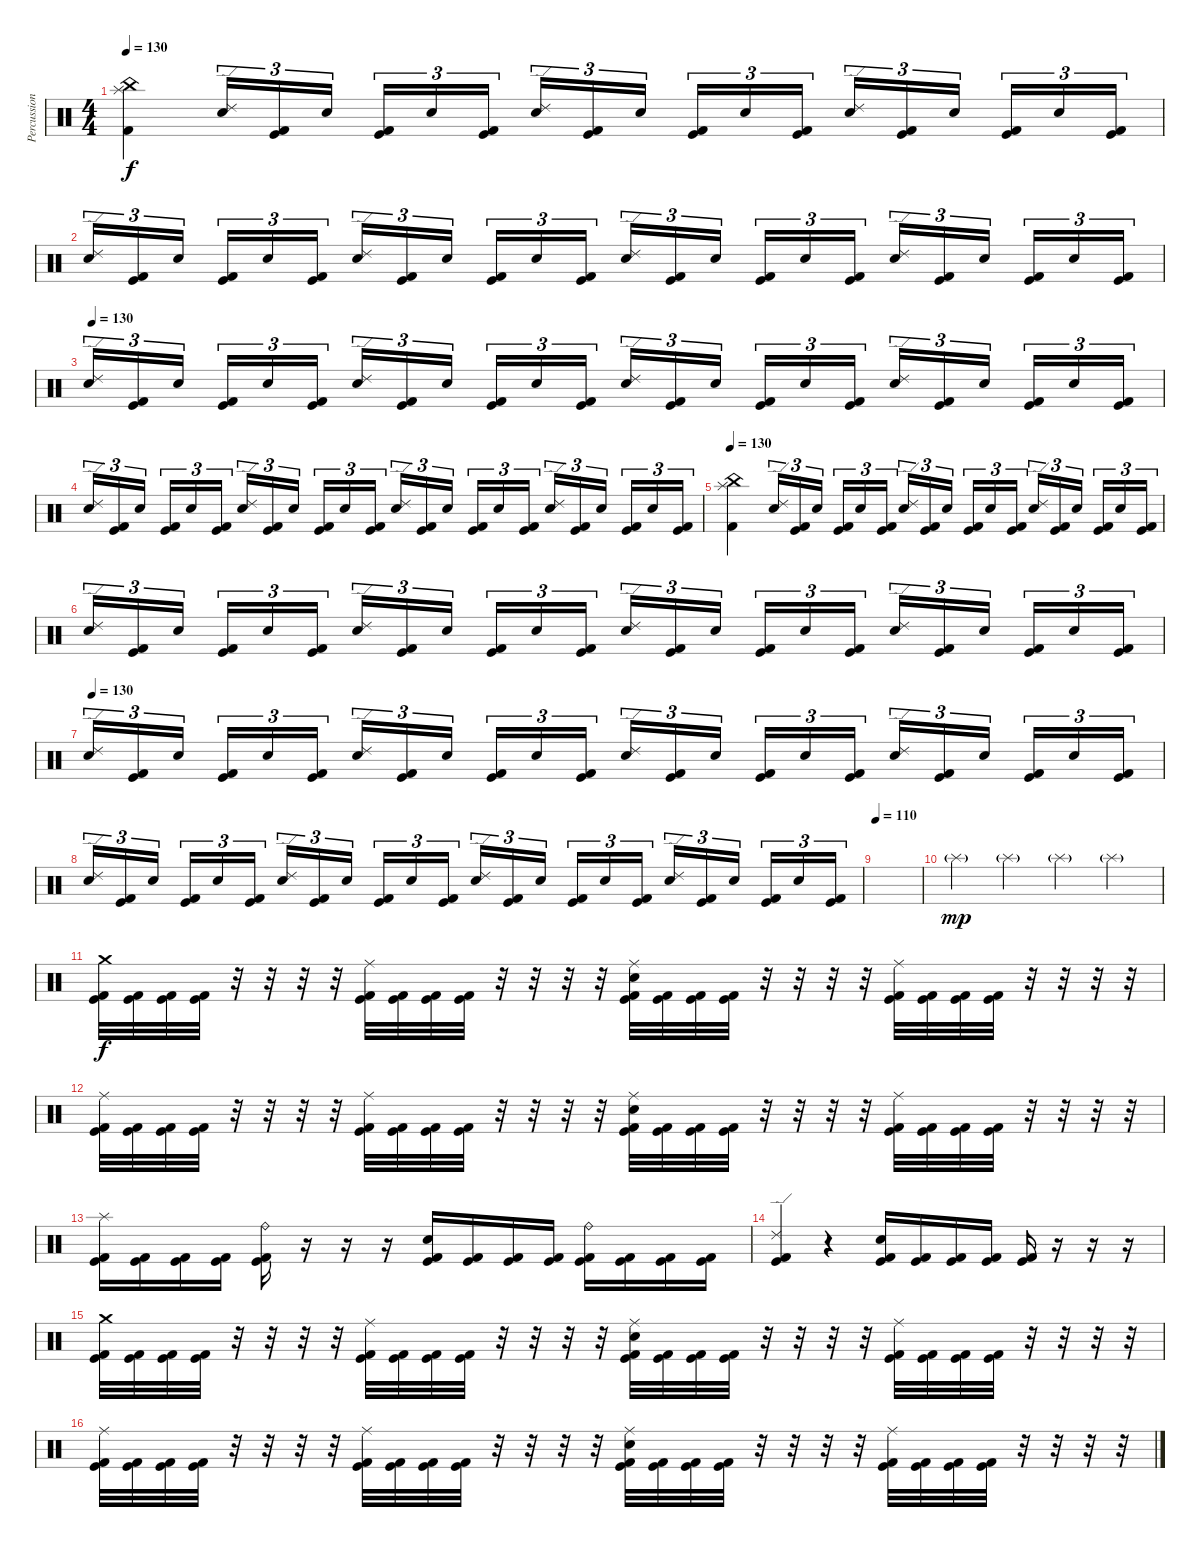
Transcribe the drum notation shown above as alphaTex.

\track ("Percussion" "Percussion") {instrument percussion}
\staff {score}
\articulation defaults
\ts (4 4)
\tempo 130
\clef neutral
\ks c
("China (hit)" "Splash (hit)" "Kick (hit) 2").4{dy f} ("Ride (edge) 2" "Electric Snare (hit)").16{tu (3 2)} ("Kick (hit)" "Kick (hit) 2").16{tu (3 2)} "Electric Snare (hit)".16{tu (3 2) beam splitsecondary} ("Kick (hit)" "Kick (hit) 2").16{tu (3 2)} "Electric Snare (hit)".16{tu (3 2)} ("Kick (hit)" "Kick (hit) 2").16{tu (3 2)} ("Ride (edge) 2" "Electric Snare (hit)").16{tu (3 2)} ("Kick (hit)" "Kick (hit) 2").16{tu (3 2)} "Electric Snare (hit)".16{tu (3 2) beam splitsecondary} ("Kick (hit)" "Kick (hit) 2").16{tu (3 2)} "Electric Snare (hit)".16{tu (3 2)} ("Kick (hit)" "Kick (hit) 2").16{tu (3 2)} ("Ride (edge) 2" "Electric Snare (hit)").16{tu (3 2)} ("Kick (hit)" "Kick (hit) 2").16{tu (3 2)} "Electric Snare (hit)".16{tu (3 2) beam splitsecondary} ("Kick (hit)" "Kick (hit) 2").16{tu (3 2)} "Electric Snare (hit)".16{tu (3 2)} ("Kick (hit)" "Kick (hit) 2").16{tu (3 2)} |
("Ride (edge) 2" "Electric Snare (hit)").16{tu (3 2)} ("Kick (hit)" "Kick (hit) 2").16{tu (3 2)} "Electric Snare (hit)".16{tu (3 2) beam splitsecondary} ("Kick (hit)" "Kick (hit) 2").16{tu (3 2)} "Electric Snare (hit)".16{tu (3 2)} ("Kick (hit)" "Kick (hit) 2").16{tu (3 2)} ("Ride (edge) 2" "Electric Snare (hit)").16{tu (3 2)} ("Kick (hit)" "Kick (hit) 2").16{tu (3 2)} "Electric Snare (hit)".16{tu (3 2) beam splitsecondary} ("Kick (hit)" "Kick (hit) 2").16{tu (3 2)} "Electric Snare (hit)".16{tu (3 2)} ("Kick (hit)" "Kick (hit) 2").16{tu (3 2)} ("Ride (edge) 2" "Electric Snare (hit)").16{tu (3 2)} ("Kick (hit)" "Kick (hit) 2").16{tu (3 2)} "Electric Snare (hit)".16{tu (3 2) beam splitsecondary} ("Kick (hit)" "Kick (hit) 2").16{tu (3 2)} "Electric Snare (hit)".16{tu (3 2)} ("Kick (hit)" "Kick (hit) 2").16{tu (3 2)} ("Ride (edge) 2" "Electric Snare (hit)").16{tu (3 2)} ("Kick (hit)" "Kick (hit) 2").16{tu (3 2)} "Electric Snare (hit)".16{tu (3 2) beam splitsecondary} ("Kick (hit)" "Kick (hit) 2").16{tu (3 2)} "Electric Snare (hit)".16{tu (3 2)} ("Kick (hit)" "Kick (hit) 2").16{tu (3 2)} |
\tempo 130
("Ride (edge) 2" "Electric Snare (hit)").16{tu (3 2)} ("Kick (hit)" "Kick (hit) 2").16{tu (3 2)} "Electric Snare (hit)".16{tu (3 2) beam splitsecondary} ("Kick (hit)" "Kick (hit) 2").16{tu (3 2)} "Electric Snare (hit)".16{tu (3 2)} ("Kick (hit)" "Kick (hit) 2").16{tu (3 2)} ("Ride (edge) 2" "Electric Snare (hit)").16{tu (3 2)} ("Kick (hit)" "Kick (hit) 2").16{tu (3 2)} "Electric Snare (hit)".16{tu (3 2) beam splitsecondary} ("Kick (hit)" "Kick (hit) 2").16{tu (3 2)} "Electric Snare (hit)".16{tu (3 2)} ("Kick (hit)" "Kick (hit) 2").16{tu (3 2)} ("Ride (edge) 2" "Electric Snare (hit)").16{tu (3 2)} ("Kick (hit)" "Kick (hit) 2").16{tu (3 2)} "Electric Snare (hit)".16{tu (3 2) beam splitsecondary} ("Kick (hit)" "Kick (hit) 2").16{tu (3 2)} "Electric Snare (hit)".16{tu (3 2)} ("Kick (hit)" "Kick (hit) 2").16{tu (3 2)} ("Ride (edge) 2" "Electric Snare (hit)").16{tu (3 2)} ("Kick (hit)" "Kick (hit) 2").16{tu (3 2)} "Electric Snare (hit)".16{tu (3 2) beam splitsecondary} ("Kick (hit)" "Kick (hit) 2").16{tu (3 2)} "Electric Snare (hit)".16{tu (3 2)} ("Kick (hit)" "Kick (hit) 2").16{tu (3 2)} |
("Ride (edge) 2" "Electric Snare (hit)").16{tu (3 2)} ("Kick (hit)" "Kick (hit) 2").16{tu (3 2)} "Electric Snare (hit)".16{tu (3 2) beam splitsecondary} ("Kick (hit)" "Kick (hit) 2").16{tu (3 2)} "Electric Snare (hit)".16{tu (3 2)} ("Kick (hit)" "Kick (hit) 2").16{tu (3 2)} ("Ride (edge) 2" "Electric Snare (hit)").16{tu (3 2)} ("Kick (hit)" "Kick (hit) 2").16{tu (3 2)} "Electric Snare (hit)".16{tu (3 2) beam splitsecondary} ("Kick (hit)" "Kick (hit) 2").16{tu (3 2)} "Electric Snare (hit)".16{tu (3 2)} ("Kick (hit)" "Kick (hit) 2").16{tu (3 2)} ("Ride (edge) 2" "Electric Snare (hit)").16{tu (3 2)} ("Kick (hit)" "Kick (hit) 2").16{tu (3 2)} "Electric Snare (hit)".16{tu (3 2) beam splitsecondary} ("Kick (hit)" "Kick (hit) 2").16{tu (3 2)} "Electric Snare (hit)".16{tu (3 2)} ("Kick (hit)" "Kick (hit) 2").16{tu (3 2)} ("Ride (edge) 2" "Electric Snare (hit)").16{tu (3 2)} ("Kick (hit)" "Kick (hit) 2").16{tu (3 2)} "Electric Snare (hit)".16{tu (3 2) beam splitsecondary} ("Kick (hit)" "Kick (hit) 2").16{tu (3 2)} "Electric Snare (hit)".16{tu (3 2)} ("Kick (hit)" "Kick (hit) 2").16{tu (3 2)} |
\tempo 130
("China (hit)" "Splash (hit)" "Kick (hit) 2").4 ("Ride (edge) 2" "Electric Snare (hit)").16{tu (3 2)} ("Kick (hit)" "Kick (hit) 2").16{tu (3 2)} "Electric Snare (hit)".16{tu (3 2) beam splitsecondary} ("Kick (hit)" "Kick (hit) 2").16{tu (3 2)} "Electric Snare (hit)".16{tu (3 2)} ("Kick (hit)" "Kick (hit) 2").16{tu (3 2)} ("Ride (edge) 2" "Electric Snare (hit)").16{tu (3 2)} ("Kick (hit)" "Kick (hit) 2").16{tu (3 2)} "Electric Snare (hit)".16{tu (3 2) beam splitsecondary} ("Kick (hit)" "Kick (hit) 2").16{tu (3 2)} "Electric Snare (hit)".16{tu (3 2)} ("Kick (hit)" "Kick (hit) 2").16{tu (3 2)} ("Ride (edge) 2" "Electric Snare (hit)").16{tu (3 2)} ("Kick (hit)" "Kick (hit) 2").16{tu (3 2)} "Electric Snare (hit)".16{tu (3 2) beam splitsecondary} ("Kick (hit)" "Kick (hit) 2").16{tu (3 2)} "Electric Snare (hit)".16{tu (3 2)} ("Kick (hit)" "Kick (hit) 2").16{tu (3 2)} |
("Ride (edge) 2" "Electric Snare (hit)").16{tu (3 2)} ("Kick (hit)" "Kick (hit) 2").16{tu (3 2)} "Electric Snare (hit)".16{tu (3 2) beam splitsecondary} ("Kick (hit)" "Kick (hit) 2").16{tu (3 2)} "Electric Snare (hit)".16{tu (3 2)} ("Kick (hit)" "Kick (hit) 2").16{tu (3 2)} ("Ride (edge) 2" "Electric Snare (hit)").16{tu (3 2)} ("Kick (hit)" "Kick (hit) 2").16{tu (3 2)} "Electric Snare (hit)".16{tu (3 2) beam splitsecondary} ("Kick (hit)" "Kick (hit) 2").16{tu (3 2)} "Electric Snare (hit)".16{tu (3 2)} ("Kick (hit)" "Kick (hit) 2").16{tu (3 2)} ("Ride (edge) 2" "Electric Snare (hit)").16{tu (3 2)} ("Kick (hit)" "Kick (hit) 2").16{tu (3 2)} "Electric Snare (hit)".16{tu (3 2) beam splitsecondary} ("Kick (hit)" "Kick (hit) 2").16{tu (3 2)} "Electric Snare (hit)".16{tu (3 2)} ("Kick (hit)" "Kick (hit) 2").16{tu (3 2)} ("Ride (edge) 2" "Electric Snare (hit)").16{tu (3 2)} ("Kick (hit)" "Kick (hit) 2").16{tu (3 2)} "Electric Snare (hit)".16{tu (3 2) beam splitsecondary} ("Kick (hit)" "Kick (hit) 2").16{tu (3 2)} "Electric Snare (hit)".16{tu (3 2)} ("Kick (hit)" "Kick (hit) 2").16{tu (3 2)} |
\tempo 130
("Ride (edge) 2" "Electric Snare (hit)").16{tu (3 2)} ("Kick (hit)" "Kick (hit) 2").16{tu (3 2)} "Electric Snare (hit)".16{tu (3 2) beam splitsecondary} ("Kick (hit)" "Kick (hit) 2").16{tu (3 2)} "Electric Snare (hit)".16{tu (3 2)} ("Kick (hit)" "Kick (hit) 2").16{tu (3 2)} ("Ride (edge) 2" "Electric Snare (hit)").16{tu (3 2)} ("Kick (hit)" "Kick (hit) 2").16{tu (3 2)} "Electric Snare (hit)".16{tu (3 2) beam splitsecondary} ("Kick (hit)" "Kick (hit) 2").16{tu (3 2)} "Electric Snare (hit)".16{tu (3 2)} ("Kick (hit)" "Kick (hit) 2").16{tu (3 2)} ("Ride (edge) 2" "Electric Snare (hit)").16{tu (3 2)} ("Kick (hit)" "Kick (hit) 2").16{tu (3 2)} "Electric Snare (hit)".16{tu (3 2) beam splitsecondary} ("Kick (hit)" "Kick (hit) 2").16{tu (3 2)} "Electric Snare (hit)".16{tu (3 2)} ("Kick (hit)" "Kick (hit) 2").16{tu (3 2)} ("Ride (edge) 2" "Electric Snare (hit)").16{tu (3 2)} ("Kick (hit)" "Kick (hit) 2").16{tu (3 2)} "Electric Snare (hit)".16{tu (3 2) beam splitsecondary} ("Kick (hit)" "Kick (hit) 2").16{tu (3 2)} "Electric Snare (hit)".16{tu (3 2)} ("Kick (hit)" "Kick (hit) 2").16{tu (3 2)} |
("Ride (edge) 2" "Electric Snare (hit)").16{tu (3 2)} ("Kick (hit)" "Kick (hit) 2").16{tu (3 2)} "Electric Snare (hit)".16{tu (3 2) beam splitsecondary} ("Kick (hit)" "Kick (hit) 2").16{tu (3 2)} "Electric Snare (hit)".16{tu (3 2)} ("Kick (hit)" "Kick (hit) 2").16{tu (3 2)} ("Ride (edge) 2" "Electric Snare (hit)").16{tu (3 2)} ("Kick (hit)" "Kick (hit) 2").16{tu (3 2)} "Electric Snare (hit)".16{tu (3 2) beam splitsecondary} ("Kick (hit)" "Kick (hit) 2").16{tu (3 2)} "Electric Snare (hit)".16{tu (3 2)} ("Kick (hit)" "Kick (hit) 2").16{tu (3 2)} ("Ride (edge) 2" "Electric Snare (hit)").16{tu (3 2)} ("Kick (hit)" "Kick (hit) 2").16{tu (3 2)} "Electric Snare (hit)".16{tu (3 2) beam splitsecondary} ("Kick (hit)" "Kick (hit) 2").16{tu (3 2)} "Electric Snare (hit)".16{tu (3 2)} ("Kick (hit)" "Kick (hit) 2").16{tu (3 2)} ("Ride (edge) 2" "Electric Snare (hit)").16{tu (3 2)} ("Kick (hit)" "Kick (hit) 2").16{tu (3 2)} "Electric Snare (hit)".16{tu (3 2) beam splitsecondary} ("Kick (hit)" "Kick (hit) 2").16{tu (3 2)} "Electric Snare (hit)".16{tu (3 2)} ("Kick (hit)" "Kick (hit) 2").16{tu (3 2)} |
\tempo 110
|
"Splash (hit)"{g}.4{dy mp} "Splash (hit)"{g}.4 "Splash (hit)"{g}.4 "Splash (hit)"{g}.4 |
("Crash medium (hit)" "Kick (hit)" "Kick (hit) 2").32{dy f} ("Kick (hit)" "Kick (hit) 2").32 ("Kick (hit)" "Kick (hit) 2").32 ("Kick (hit)" "Kick (hit) 2").32 r.32 r.32 r.32 r.32 ("Ride (middle)" "Kick (hit)" "Kick (hit) 2").32 ("Kick (hit)" "Kick (hit) 2").32 ("Kick (hit)" "Kick (hit) 2").32 ("Kick (hit)" "Kick (hit) 2").32 r.32 r.32 r.32 r.32 ("Ride (middle)" "Electric Snare (hit)" "Kick (hit)" "Kick (hit) 2").32 ("Kick (hit)" "Kick (hit) 2").32 ("Kick (hit)" "Kick (hit) 2").32 ("Kick (hit)" "Kick (hit) 2").32 r.32 r.32 r.32 r.32 ("Ride (middle)" "Kick (hit)" "Kick (hit) 2").32 ("Kick (hit)" "Kick (hit) 2").32 ("Kick (hit)" "Kick (hit) 2").32 ("Kick (hit)" "Kick (hit) 2").32 r.32 r.32 r.32 r.32 |
("Ride (middle)" "Kick (hit)" "Kick (hit) 2").32 ("Kick (hit)" "Kick (hit) 2").32 ("Kick (hit)" "Kick (hit) 2").32 ("Kick (hit)" "Kick (hit) 2").32 r.32 r.32 r.32 r.32 ("Ride (middle)" "Kick (hit)" "Kick (hit) 2").32 ("Kick (hit)" "Kick (hit) 2").32 ("Kick (hit)" "Kick (hit) 2").32 ("Kick (hit)" "Kick (hit) 2").32 r.32 r.32 r.32 r.32 ("Ride (middle)" "Electric Snare (hit)" "Kick (hit)" "Kick (hit) 2").32 ("Kick (hit)" "Kick (hit) 2").32 ("Kick (hit)" "Kick (hit) 2").32 ("Kick (hit)" "Kick (hit) 2").32 r.32 r.32 r.32 r.32 ("Ride (middle)" "Kick (hit)" "Kick (hit) 2").32 ("Kick (hit)" "Kick (hit) 2").32 ("Kick (hit)" "Kick (hit) 2").32 ("Kick (hit)" "Kick (hit) 2").32 r.32 r.32 r.32 r.32 |
("Splash (hit)" "Kick (hit)" "Kick (hit) 2").16 ("Kick (hit)" "Kick (hit) 2").16 ("Kick (hit)" "Kick (hit) 2").16 ("Kick (hit)" "Kick (hit) 2").16 ("Ride (bell)" "Kick (hit)" "Kick (hit) 2").16 r.16 r.16 r.16 ("Electric Snare (hit)" "Kick (hit)" "Kick (hit) 2").16 ("Kick (hit)" "Kick (hit) 2").16 ("Kick (hit)" "Kick (hit) 2").16 ("Kick (hit)" "Kick (hit) 2").16 ("Ride (bell)" "Kick (hit)" "Kick (hit) 2").16 ("Kick (hit)" "Kick (hit) 2").16 ("Kick (hit)" "Kick (hit) 2").16 ("Kick (hit)" "Kick (hit) 2").16 |
("Ride (edge) 2" "Kick (hit)" "Kick (hit) 2").4 r.4 ("Electric Snare (hit)" "Kick (hit)" "Kick (hit) 2").16 ("Kick (hit)" "Kick (hit) 2").16 ("Kick (hit)" "Kick (hit) 2").16 ("Kick (hit)" "Kick (hit) 2").16 ("Kick (hit)" "Kick (hit) 2").16 r.16 r.16 r.16 |
("Crash medium (hit)" "Kick (hit)" "Kick (hit) 2").32 ("Kick (hit)" "Kick (hit) 2").32 ("Kick (hit)" "Kick (hit) 2").32 ("Kick (hit)" "Kick (hit) 2").32 r.32 r.32 r.32 r.32 ("Ride (middle)" "Kick (hit)" "Kick (hit) 2").32 ("Kick (hit)" "Kick (hit) 2").32 ("Kick (hit)" "Kick (hit) 2").32 ("Kick (hit)" "Kick (hit) 2").32 r.32 r.32 r.32 r.32 ("Ride (middle)" "Electric Snare (hit)" "Kick (hit)" "Kick (hit) 2").32 ("Kick (hit)" "Kick (hit) 2").32 ("Kick (hit)" "Kick (hit) 2").32 ("Kick (hit)" "Kick (hit) 2").32 r.32 r.32 r.32 r.32 ("Ride (middle)" "Kick (hit)" "Kick (hit) 2").32 ("Kick (hit)" "Kick (hit) 2").32 ("Kick (hit)" "Kick (hit) 2").32 ("Kick (hit)" "Kick (hit) 2").32 r.32 r.32 r.32 r.32 |
("Ride (middle)" "Kick (hit)" "Kick (hit) 2").32 ("Kick (hit)" "Kick (hit) 2").32 ("Kick (hit)" "Kick (hit) 2").32 ("Kick (hit)" "Kick (hit) 2").32 r.32 r.32 r.32 r.32 ("Ride (middle)" "Kick (hit)" "Kick (hit) 2").32 ("Kick (hit)" "Kick (hit) 2").32 ("Kick (hit)" "Kick (hit) 2").32 ("Kick (hit)" "Kick (hit) 2").32 r.32 r.32 r.32 r.32 ("Ride (middle)" "Electric Snare (hit)" "Kick (hit)" "Kick (hit) 2").32 ("Kick (hit)" "Kick (hit) 2").32 ("Kick (hit)" "Kick (hit) 2").32 ("Kick (hit)" "Kick (hit) 2").32 r.32 r.32 r.32 r.32 ("Ride (middle)" "Kick (hit)" "Kick (hit) 2").32 ("Kick (hit)" "Kick (hit) 2").32 ("Kick (hit)" "Kick (hit) 2").32 ("Kick (hit)" "Kick (hit) 2").32 r.32 r.32 r.32 r.32
